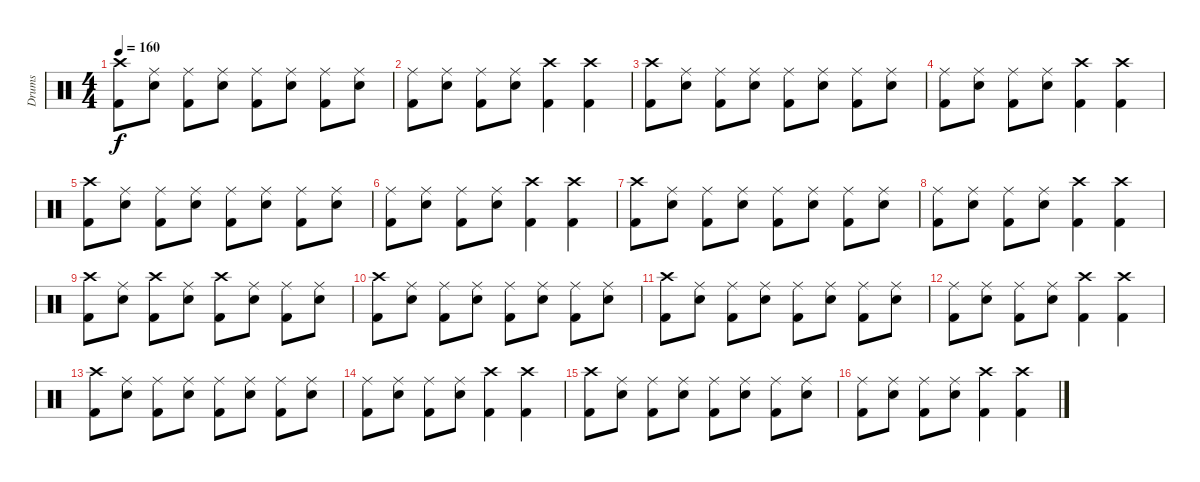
\track ("Drums" "Drums") {instrument percussion}
\staff {score}
\articulation defaults
\ts (4 4)
\tempo 160
\clef neutral
\ks c
("Kick (hit) 2" "Crash high (hit)").8{dy f} ("Snare (hit) 2" "Ride (middle)").8 ("Kick (hit) 2" "Ride (middle)").8 ("Snare (hit) 2" "Ride (middle)").8 ("Kick (hit) 2" "Ride (middle)").8 ("Snare (hit) 2" "Ride (middle)").8 ("Kick (hit) 2" "Ride (middle)").8 ("Snare (hit) 2" "Ride (middle)").8 |
("Kick (hit) 2" "Ride (middle)").8 ("Snare (hit) 2" "Ride (middle)").8 ("Kick (hit) 2" "Ride (middle)").8 ("Snare (hit) 2" "Ride (middle)").8 ("Kick (hit) 2" "Crash high (hit)").4 ("Kick (hit) 2" "Crash high (hit)").4 |
("Kick (hit) 2" "Crash high (hit)").8 ("Snare (hit) 2" "Ride (middle)").8 ("Kick (hit) 2" "Ride (middle)").8 ("Snare (hit) 2" "Ride (middle)").8 ("Kick (hit) 2" "Ride (middle)").8 ("Snare (hit) 2" "Ride (middle)").8 ("Kick (hit) 2" "Ride (middle)").8 ("Snare (hit) 2" "Ride (middle)").8 |
("Kick (hit) 2" "Ride (middle)").8 ("Snare (hit) 2" "Ride (middle)").8 ("Kick (hit) 2" "Ride (middle)").8 ("Snare (hit) 2" "Ride (middle)").8 ("Kick (hit) 2" "Crash high (hit)").4 ("Kick (hit) 2" "Crash high (hit)").4 |
("Kick (hit) 2" "Crash high (hit)").8 ("Snare (hit) 2" "Ride (middle)").8 ("Kick (hit) 2" "Ride (middle)").8 ("Snare (hit) 2" "Ride (middle)").8 ("Kick (hit) 2" "Ride (middle)").8 ("Snare (hit) 2" "Ride (middle)").8 ("Kick (hit) 2" "Ride (middle)").8 ("Snare (hit) 2" "Ride (middle)").8 |
("Kick (hit) 2" "Ride (middle)").8 ("Snare (hit) 2" "Ride (middle)").8 ("Kick (hit) 2" "Ride (middle)").8 ("Snare (hit) 2" "Ride (middle)").8 ("Kick (hit) 2" "Crash high (hit)").4 ("Kick (hit) 2" "Crash high (hit)").4 |
("Kick (hit) 2" "Crash high (hit)").8 ("Snare (hit) 2" "Ride (middle)").8 ("Kick (hit) 2" "Ride (middle)").8 ("Snare (hit) 2" "Ride (middle)").8 ("Kick (hit) 2" "Ride (middle)").8 ("Snare (hit) 2" "Ride (middle)").8 ("Kick (hit) 2" "Ride (middle)").8 ("Snare (hit) 2" "Ride (middle)").8 |
("Kick (hit) 2" "Ride (middle)").8 ("Snare (hit) 2" "Ride (middle)").8 ("Kick (hit) 2" "Ride (middle)").8 ("Snare (hit) 2" "Ride (middle)").8 ("Kick (hit) 2" "Crash high (hit)").4 ("Kick (hit) 2" "Crash high (hit)").4 |
("Kick (hit) 2" "Crash high (hit)").8 ("Snare (hit) 2" "Ride (middle)").8 ("Kick (hit) 2" "Crash high (hit)").8 ("Snare (hit) 2" "Ride (middle)").8 ("Kick (hit) 2" "Crash high (hit)").8 ("Snare (hit) 2" "Ride (middle)").8 ("Kick (hit) 2" "Ride (middle)").8 ("Snare (hit) 2" "Ride (middle)").8 |
("Crash high (hit)" "Kick (hit) 2").8 ("Ride (middle)" "Snare (hit) 2").8 ("Ride (middle)" "Kick (hit) 2").8 ("Ride (middle)" "Snare (hit) 2").8 ("Ride (middle)" "Kick (hit) 2").8 ("Ride (middle)" "Snare (hit) 2").8 ("Ride (middle)" "Kick (hit) 2").8 ("Ride (middle)" "Snare (hit) 2").8 |
("Kick (hit) 2" "Crash high (hit)").8 ("Snare (hit) 2" "Ride (middle)").8 ("Kick (hit) 2" "Ride (middle)").8 ("Snare (hit) 2" "Ride (middle)").8 ("Kick (hit) 2" "Ride (middle)").8 ("Snare (hit) 2" "Ride (middle)").8 ("Kick (hit) 2" "Ride (middle)").8 ("Snare (hit) 2" "Ride (middle)").8 |
("Kick (hit) 2" "Ride (middle)").8 ("Snare (hit) 2" "Ride (middle)").8 ("Kick (hit) 2" "Ride (middle)").8 ("Snare (hit) 2" "Ride (middle)").8 ("Kick (hit) 2" "Crash high (hit)").4 ("Kick (hit) 2" "Crash high (hit)").4 |
("Kick (hit) 2" "Crash high (hit)").8 ("Snare (hit) 2" "Ride (middle)").8 ("Kick (hit) 2" "Ride (middle)").8 ("Snare (hit) 2" "Ride (middle)").8 ("Kick (hit) 2" "Ride (middle)").8 ("Snare (hit) 2" "Ride (middle)").8 ("Kick (hit) 2" "Ride (middle)").8 ("Snare (hit) 2" "Ride (middle)").8 |
("Kick (hit) 2" "Ride (middle)").8 ("Snare (hit) 2" "Ride (middle)").8 ("Kick (hit) 2" "Ride (middle)").8 ("Snare (hit) 2" "Ride (middle)").8 ("Kick (hit) 2" "Crash high (hit)").4 ("Kick (hit) 2" "Crash high (hit)").4 |
("Kick (hit) 2" "Crash high (hit)").8 ("Snare (hit) 2" "Ride (middle)").8 ("Kick (hit) 2" "Ride (middle)").8 ("Snare (hit) 2" "Ride (middle)").8 ("Kick (hit) 2" "Ride (middle)").8 ("Snare (hit) 2" "Ride (middle)").8 ("Kick (hit) 2" "Ride (middle)").8 ("Snare (hit) 2" "Ride (middle)").8 |
("Kick (hit) 2" "Ride (middle)").8 ("Snare (hit) 2" "Ride (middle)").8 ("Kick (hit) 2" "Ride (middle)").8 ("Snare (hit) 2" "Ride (middle)").8 ("Kick (hit) 2" "Crash high (hit)").4 ("Kick (hit) 2" "Crash high (hit)").4
